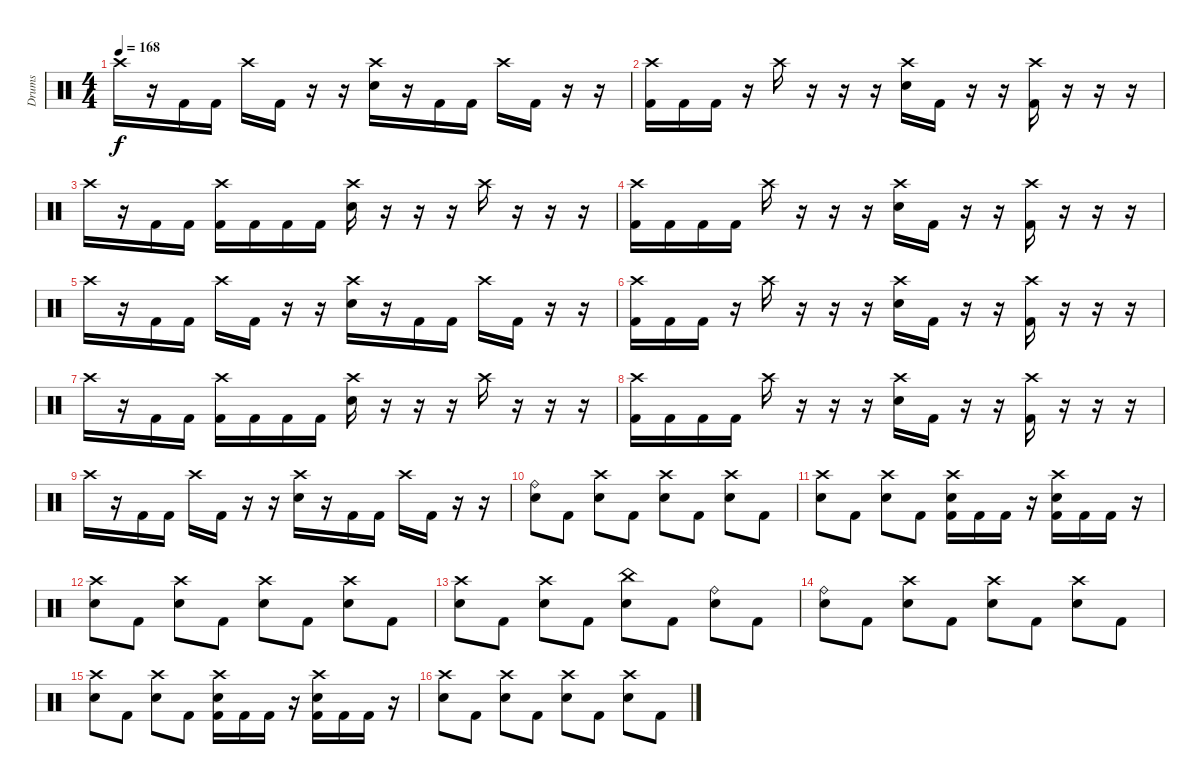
\track ("Drums" "Drums") {instrument percussion}
\staff {score}
\articulation defaults
\ts (4 4)
\tempo 168
\clef neutral
\ks c "Crash high (hit)".16{dy f}
r.16 "Kick (hit) 2".16 "Kick (hit) 2".16 "Crash high (hit)".16 "Kick (hit) 2".16 r.16 r.16 ("Crash high (hit)" "Snare (hit) 2").16 r.16 "Kick (hit) 2".16 "Kick (hit) 2".16 "Crash high (hit)".16 "Kick (hit) 2".16 r.16 r.16 |
("Crash high (hit)" "Kick (hit) 2").16 "Kick (hit) 2".16 "Kick (hit) 2".16 r.16 "Crash high (hit)".16 r.16 r.16 r.16 ("Crash high (hit)" "Snare (hit) 2").16 "Kick (hit) 2".16 r.16 r.16 ("Crash high (hit)" "Kick (hit) 2").16 r.16 r.16 r.16 |
"Crash high (hit)".16 r.16 "Kick (hit) 2".16 "Kick (hit) 2".16 ("Crash high (hit)" "Kick (hit) 2").16 "Kick (hit) 2".16 "Kick (hit) 2".16 "Kick (hit) 2".16 ("Crash high (hit)" "Snare (hit) 2").16 r.16 r.16 r.16 "Crash high (hit)".16 r.16 r.16 r.16 |
("Crash high (hit)" "Kick (hit) 2").16 "Kick (hit) 2".16 "Kick (hit) 2".16 "Kick (hit) 2".16 "Crash high (hit)".16 r.16 r.16 r.16 ("Crash high (hit)" "Snare (hit) 2").16 "Kick (hit) 2".16 r.16 r.16 ("Crash high (hit)" "Kick (hit) 2").16 r.16 r.16 r.16 |
"Crash high (hit)".16 r.16 "Kick (hit) 2".16 "Kick (hit) 2".16 "Crash high (hit)".16 "Kick (hit) 2".16 r.16 r.16 ("Crash high (hit)" "Snare (hit) 2").16 r.16 "Kick (hit) 2".16 "Kick (hit) 2".16 "Crash high (hit)".16 "Kick (hit) 2".16 r.16 r.16 |
("Crash high (hit)" "Kick (hit) 2").16 "Kick (hit) 2".16 "Kick (hit) 2".16 r.16 "Crash high (hit)".16 r.16 r.16 r.16 ("Crash high (hit)" "Snare (hit) 2").16 "Kick (hit) 2".16 r.16 r.16 ("Crash high (hit)" "Kick (hit) 2").16 r.16 r.16 r.16 |
"Crash high (hit)".16 r.16 "Kick (hit) 2".16 "Kick (hit) 2".16 ("Crash high (hit)" "Kick (hit) 2").16 "Kick (hit) 2".16 "Kick (hit) 2".16 "Kick (hit) 2".16 ("Crash high (hit)" "Snare (hit) 2").16 r.16 r.16 r.16 "Crash high (hit)".16 r.16 r.16 r.16 |
("Crash high (hit)" "Kick (hit) 2").16 "Kick (hit) 2".16 "Kick (hit) 2".16 "Kick (hit) 2".16 "Crash high (hit)".16 r.16 r.16 r.16 ("Crash high (hit)" "Snare (hit) 2").16 "Kick (hit) 2".16 r.16 r.16 ("Crash high (hit)" "Kick (hit) 2").16 r.16 r.16 r.16 |
"Crash high (hit)".16 r.16 "Kick (hit) 2".16 "Kick (hit) 2".16 "Crash high (hit)".16 "Kick (hit) 2".16 r.16 r.16 ("Crash high (hit)" "Snare (hit) 2").16 r.16 "Kick (hit) 2".16 "Kick (hit) 2".16 "Crash high (hit)".16 "Kick (hit) 2".16 r.16 r.16 |
("Ride (bell)" "Snare (hit) 2").8 "Kick (hit) 2".8 ("Crash high (hit)" "Snare (hit) 2").8 "Kick (hit) 2".8 ("Crash high (hit)" "Snare (hit) 2").8 "Kick (hit) 2".8 ("Crash high (hit)" "Snare (hit) 2").8 "Kick (hit) 2".8 |
("Crash high (hit)" "Snare (hit) 2").8 "Kick (hit) 2".8 ("Crash high (hit)" "Snare (hit) 2").8 "Kick (hit) 2".8 ("Crash high (hit)" "Snare (hit) 2" "Kick (hit) 2").16 "Kick (hit) 2".16 "Kick (hit) 2".16 r.16 ("Crash high (hit)" "Snare (hit) 2" "Kick (hit) 2").16 "Kick (hit) 2".16 "Kick (hit) 2".16 r.16 |
("Crash high (hit)" "Snare (hit) 2").8 "Kick (hit) 2".8 ("Crash high (hit)" "Snare (hit) 2").8 "Kick (hit) 2".8 ("Crash high (hit)" "Snare (hit) 2").8 "Kick (hit) 2".8 ("Crash high (hit)" "Snare (hit) 2").8 "Kick (hit) 2".8 |
("Crash high (hit)" "Snare (hit) 2").8 "Kick (hit) 2".8 ("Crash high (hit)" "Snare (hit) 2").8 "Kick (hit) 2".8 ("China (hit)" "Snare (hit) 2").8 "Kick (hit) 2".8 ("Ride (bell)" "Snare (hit) 2").8 "Kick (hit) 2".8 |
("Ride (bell)" "Snare (hit) 2").8 "Kick (hit) 2".8 ("Crash high (hit)" "Snare (hit) 2").8 "Kick (hit) 2".8 ("Crash high (hit)" "Snare (hit) 2").8 "Kick (hit) 2".8 ("Crash high (hit)" "Snare (hit) 2").8 "Kick (hit) 2".8 |
("Crash high (hit)" "Snare (hit) 2").8 "Kick (hit) 2".8 ("Crash high (hit)" "Snare (hit) 2").8 "Kick (hit) 2".8 ("Crash high (hit)" "Snare (hit) 2" "Kick (hit) 2").16 "Kick (hit) 2".16 "Kick (hit) 2".16 r.16 ("Crash high (hit)" "Snare (hit) 2" "Kick (hit) 2").16 "Kick (hit) 2".16 "Kick (hit) 2".16 r.16 |
("Crash high (hit)" "Snare (hit) 2").8 "Kick (hit) 2".8 ("Crash high (hit)" "Snare (hit) 2").8 "Kick (hit) 2".8 ("Crash high (hit)" "Snare (hit) 2").8 "Kick (hit) 2".8 ("Crash high (hit)" "Snare (hit) 2").8 "Kick (hit) 2".8
